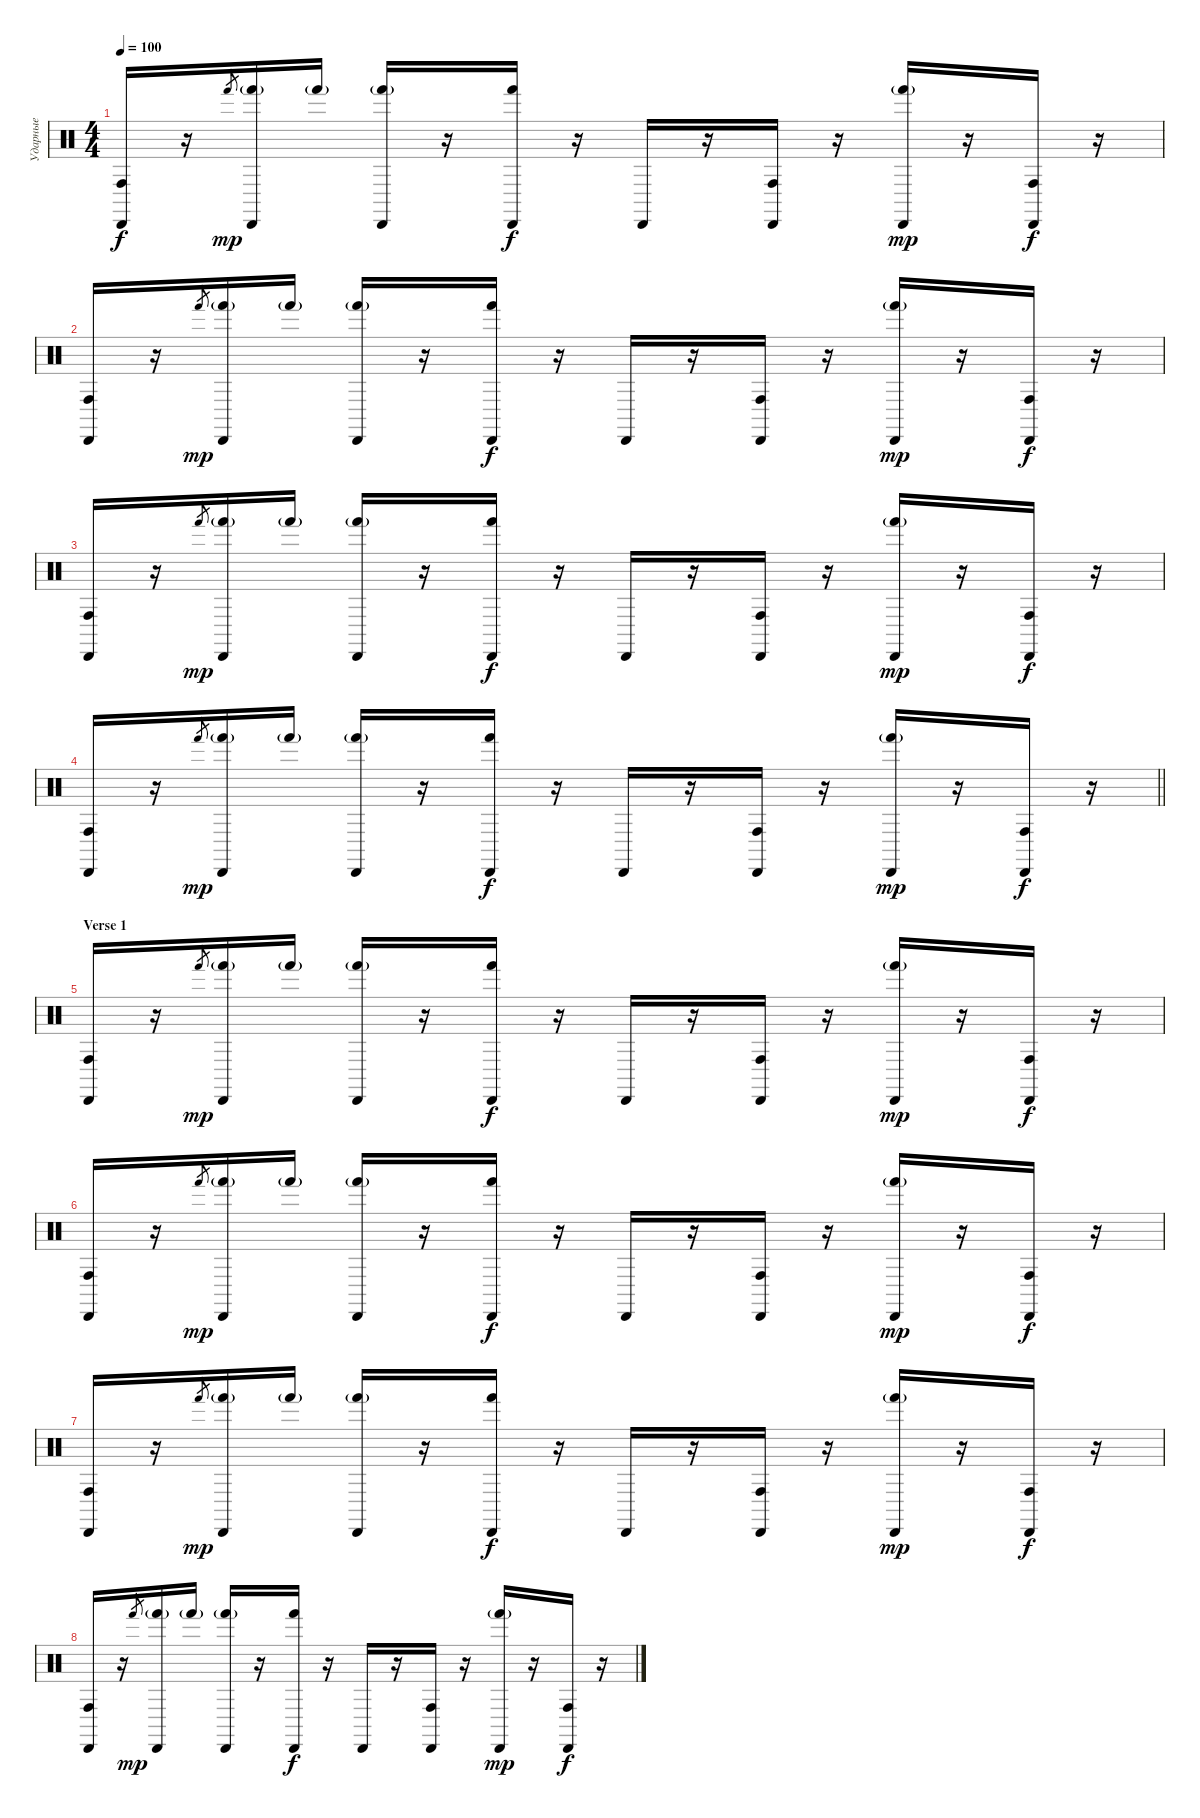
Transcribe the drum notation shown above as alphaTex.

\track ("Ударные" "Ударные") {instrument percussion}
\staff {score}
\articulation defaults
\ts (4 4)
\tempo 100
\clef neutral
\ks c
("Conga high (hit)" "Cabasa (hit)").16{dy f} r.16 "Hand (hit)".8{gr dy mp} ("Hand (hit)"{g} "Cabasa (hit)").16 "Hand (hit)"{g}.16 ("Hand (hit)"{g} "Cabasa (hit)").16 r.16 ("Hand (hit)" "Cabasa (hit)").16{dy f} r.16 "Cabasa (hit)".16 r.16 ("Conga high (hit)" "Cabasa (hit)").16 r.16 ("Hand (hit)"{g} "Cabasa (hit)").16{dy mp} r.16 ("Conga high (hit)" "Cabasa (hit)").16{dy f} r.16 |
("Conga high (hit)" "Cabasa (hit)").16 r.16 "Hand (hit)".8{gr dy mp} ("Hand (hit)"{g} "Cabasa (hit)").16 "Hand (hit)"{g}.16 ("Hand (hit)"{g} "Cabasa (hit)").16 r.16 ("Hand (hit)" "Cabasa (hit)").16{dy f} r.16 "Cabasa (hit)".16 r.16 ("Conga high (hit)" "Cabasa (hit)").16 r.16 ("Hand (hit)"{g} "Cabasa (hit)").16{dy mp} r.16 ("Conga high (hit)" "Cabasa (hit)").16{dy f} r.16 |
("Conga high (hit)" "Cabasa (hit)").16 r.16 "Hand (hit)".8{gr dy mp} ("Hand (hit)"{g} "Cabasa (hit)").16 "Hand (hit)"{g}.16 ("Hand (hit)"{g} "Cabasa (hit)").16 r.16 ("Hand (hit)" "Cabasa (hit)").16{dy f} r.16 "Cabasa (hit)".16 r.16 ("Conga high (hit)" "Cabasa (hit)").16 r.16 ("Hand (hit)"{g} "Cabasa (hit)").16{dy mp} r.16 ("Conga high (hit)" "Cabasa (hit)").16{dy f} r.16 |
\barLineRight lightlight
("Conga high (hit)" "Cabasa (hit)").16 r.16 "Hand (hit)".8{gr dy mp} ("Hand (hit)"{g} "Cabasa (hit)").16 "Hand (hit)"{g}.16 ("Hand (hit)"{g} "Cabasa (hit)").16 r.16 ("Hand (hit)" "Cabasa (hit)").16{dy f} r.16 "Cabasa (hit)".16 r.16 ("Conga high (hit)" "Cabasa (hit)").16 r.16 ("Hand (hit)"{g} "Cabasa (hit)").16{dy mp} r.16 ("Conga high (hit)" "Cabasa (hit)").16{dy f} r.16 |
\section ("" "Verse 1")
("Conga high (hit)" "Cabasa (hit)").16 r.16 "Hand (hit)".8{gr dy mp} ("Hand (hit)"{g} "Cabasa (hit)").16 "Hand (hit)"{g}.16 ("Hand (hit)"{g} "Cabasa (hit)").16 r.16 ("Hand (hit)" "Cabasa (hit)").16{dy f} r.16 "Cabasa (hit)".16 r.16 ("Conga high (hit)" "Cabasa (hit)").16 r.16 ("Hand (hit)"{g} "Cabasa (hit)").16{dy mp} r.16 ("Conga high (hit)" "Cabasa (hit)").16{dy f} r.16 |
("Conga high (hit)" "Cabasa (hit)").16 r.16 "Hand (hit)".8{gr dy mp} ("Hand (hit)"{g} "Cabasa (hit)").16 "Hand (hit)"{g}.16 ("Hand (hit)"{g} "Cabasa (hit)").16 r.16 ("Hand (hit)" "Cabasa (hit)").16{dy f} r.16 "Cabasa (hit)".16 r.16 ("Conga high (hit)" "Cabasa (hit)").16 r.16 ("Hand (hit)"{g} "Cabasa (hit)").16{dy mp} r.16 ("Conga high (hit)" "Cabasa (hit)").16{dy f} r.16 |
("Conga high (hit)" "Cabasa (hit)").16 r.16 "Hand (hit)".8{gr dy mp} ("Hand (hit)"{g} "Cabasa (hit)").16 "Hand (hit)"{g}.16 ("Hand (hit)"{g} "Cabasa (hit)").16 r.16 ("Hand (hit)" "Cabasa (hit)").16{dy f} r.16 "Cabasa (hit)".16 r.16 ("Conga high (hit)" "Cabasa (hit)").16 r.16 ("Hand (hit)"{g} "Cabasa (hit)").16{dy mp} r.16 ("Conga high (hit)" "Cabasa (hit)").16{dy f} r.16 |
("Conga high (hit)" "Cabasa (hit)").16 r.16 "Hand (hit)".8{gr dy mp} ("Hand (hit)"{g} "Cabasa (hit)").16 "Hand (hit)"{g}.16 ("Hand (hit)"{g} "Cabasa (hit)").16 r.16 ("Hand (hit)" "Cabasa (hit)").16{dy f} r.16 "Cabasa (hit)".16 r.16 ("Conga high (hit)" "Cabasa (hit)").16 r.16 ("Hand (hit)"{g} "Cabasa (hit)").16{dy mp} r.16 ("Conga high (hit)" "Cabasa (hit)").16{dy f} r.16
